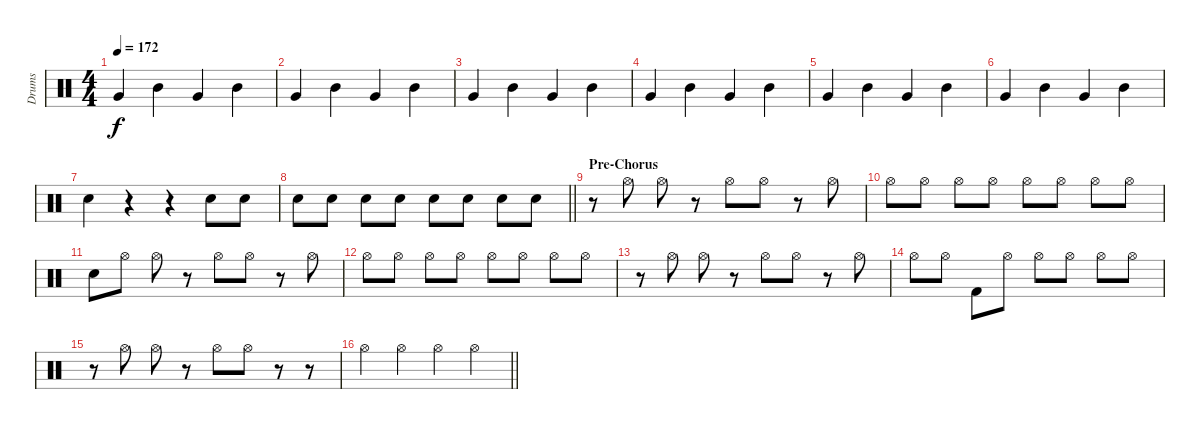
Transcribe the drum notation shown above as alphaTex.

\track ("Drums" "Drums") {instrument percussion}
\staff {score}
\articulation defaults
\ts (4 4)
\tempo 172
\clef neutral
\ks c "Very Low Tom (hit)".4{dy f} "Mid Tom (hit)".4 "Very Low Tom (hit)".4 "Mid Tom (hit)".4
|
"Very Low Tom (hit)".4 "Mid Tom (hit)".4 "Very Low Tom (hit)".4 "Mid Tom (hit)".4 |
"Very Low Tom (hit)".4 "Mid Tom (hit)".4 "Very Low Tom (hit)".4 "Mid Tom (hit)".4 |
"Very Low Tom (hit)".4 "Mid Tom (hit)".4 "Very Low Tom (hit)".4 "Mid Tom (hit)".4 |
"Very Low Tom (hit)".4 "Mid Tom (hit)".4 "Very Low Tom (hit)".4 "Mid Tom (hit)".4 |
"Very Low Tom (hit)".4 "Mid Tom (hit)".4 "Very Low Tom (hit)".4 "Mid Tom (hit)".4 |
"Snare (hit) 2".4 r.4{volume 4} r.4 "Snare (hit) 2".8{volume 10} "Snare (hit) 2".8 |
\barLineRight lightlight "Snare (hit) 2".8 "Snare (hit) 2".8 "Snare (hit) 2".8 "Snare (hit) 2".8 "Snare (hit) 2".8 "Snare (hit) 2".8 "Snare (hit) 2".8 "Snare (hit) 2".8
|
\section ("" "Pre-Chorus")
r.8 "Hi-Hat (open)".8 "Hi-Hat (open)".8 r.8 "Hi-Hat (open)".8 "Hi-Hat (open)".8 r.8 "Hi-Hat (open)".8 |
"Hi-Hat (open)".8 "Hi-Hat (open)".8 "Hi-Hat (open)".8 "Hi-Hat (open)".8 "Hi-Hat (open)".8 "Hi-Hat (open)".8 "Hi-Hat (open)".8 "Hi-Hat (open)".8 |
"Snare (hit) 2".8 "Hi-Hat (open)".8 "Hi-Hat (open)".8 r.8 "Hi-Hat (open)".8 "Hi-Hat (open)".8 r.8 "Hi-Hat (open)".8 |
"Hi-Hat (open)".8 "Hi-Hat (open)".8 "Hi-Hat (open)".8 "Hi-Hat (open)".8 "Hi-Hat (open)".8 "Hi-Hat (open)".8 "Hi-Hat (open)".8 "Hi-Hat (open)".8 |
r.8 "Hi-Hat (open)".8 "Hi-Hat (open)".8 r.8 "Hi-Hat (open)".8 "Hi-Hat (open)".8 r.8 "Hi-Hat (open)".8 |
"Hi-Hat (open)".8 "Hi-Hat (open)".8 "Kick (hit) 2".8 "Hi-Hat (open)".8 "Hi-Hat (open)".8 "Hi-Hat (open)".8 "Hi-Hat (open)".8 "Hi-Hat (open)".8 |
r.8 "Hi-Hat (open)".8 "Hi-Hat (open)".8 r.8 "Hi-Hat (open)".8 "Hi-Hat (open)".8 r.8 r.8 |
\barLineRight lightlight "Hi-Hat (open)".4 "Hi-Hat (open)".4 "Hi-Hat (open)".4 "Hi-Hat (open)".4
